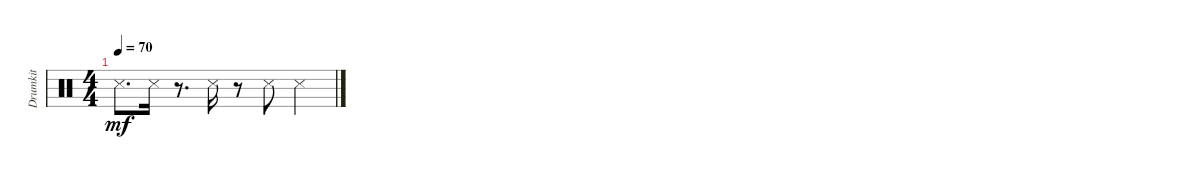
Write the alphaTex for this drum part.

\track ("Drumkit" "Drumkit") {instrument percussion}
\staff {score}
\articulation defaults
\ts (4 4)
\tempo 70
\clef neutral
\ks c "Snare (side stick) 3".8{d dy mf} "Snare (side stick) 3".16
r.8{d} "Snare (side stick) 3".16 r.8 "Snare (side stick) 3".8 "Snare (side stick) 3".4
